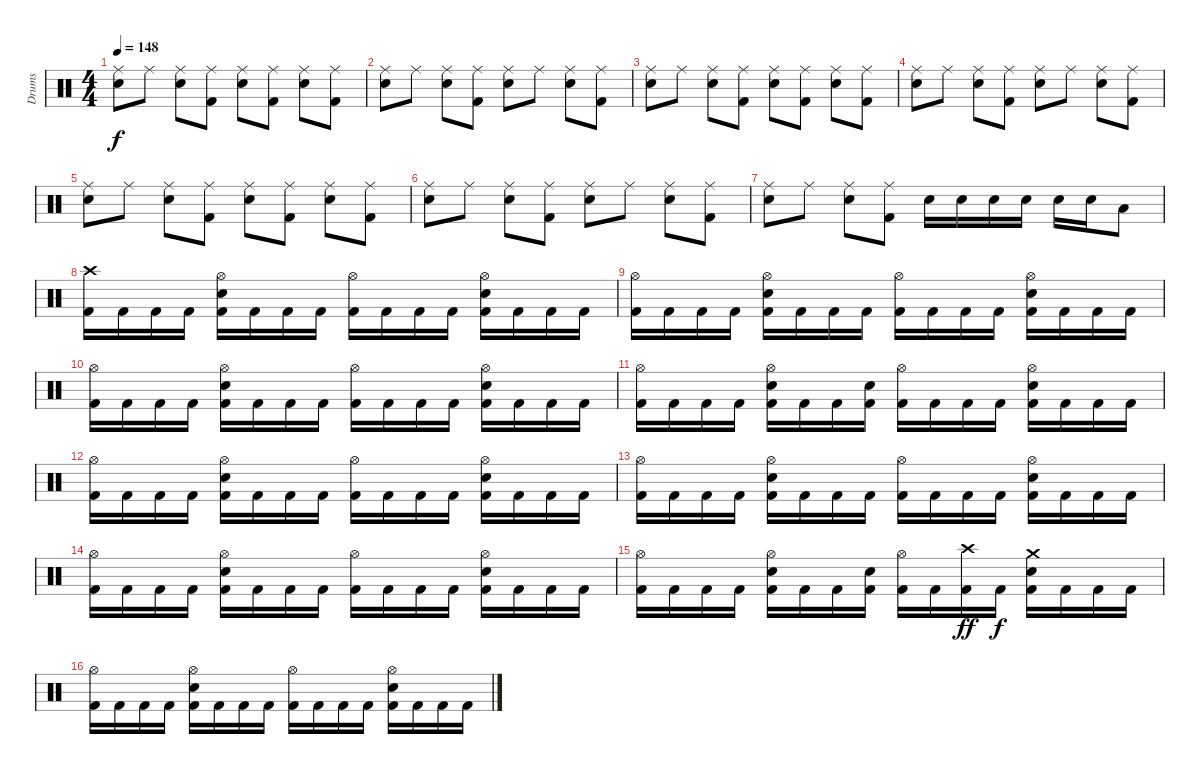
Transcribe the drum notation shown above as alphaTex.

\track ("Drums" "Drums") {instrument percussion}
\staff {score}
\articulation defaults
\ts (4 4)
\tempo 148
\clef neutral
\ks c
("Ride (middle)" "Snare (hit) 2").8{dy f} "Ride (middle)".8 ("Ride (middle)" "Snare (hit) 2").8 ("Ride (middle)" "Kick (hit) 2").8 ("Ride (middle)" "Snare (hit) 2").8 ("Ride (middle)" "Kick (hit) 2").8 ("Ride (middle)" "Snare (hit) 2").8 ("Ride (middle)" "Kick (hit) 2").8 |
("Ride (middle)" "Snare (hit) 2").8 "Ride (middle)".8 ("Ride (middle)" "Snare (hit) 2").8 ("Ride (middle)" "Kick (hit) 2").8 ("Ride (middle)" "Snare (hit) 2").8 "Ride (middle)".8 ("Ride (middle)" "Snare (hit) 2").8 ("Ride (middle)" "Kick (hit) 2").8 |
("Ride (middle)" "Snare (hit) 2").8 "Ride (middle)".8 ("Ride (middle)" "Snare (hit) 2").8 ("Ride (middle)" "Kick (hit) 2").8 ("Ride (middle)" "Snare (hit) 2").8 ("Ride (middle)" "Kick (hit) 2").8 ("Ride (middle)" "Snare (hit) 2").8 ("Ride (middle)" "Kick (hit) 2").8 |
("Ride (middle)" "Snare (hit) 2").8 "Ride (middle)".8 ("Ride (middle)" "Snare (hit) 2").8 ("Ride (middle)" "Kick (hit) 2").8 ("Ride (middle)" "Snare (hit) 2").8 "Ride (middle)".8 ("Ride (middle)" "Snare (hit) 2").8 ("Ride (middle)" "Kick (hit) 2").8 |
("Ride (middle)" "Snare (hit) 2").8 "Ride (middle)".8 ("Ride (middle)" "Snare (hit) 2").8 ("Ride (middle)" "Kick (hit) 2").8 ("Ride (middle)" "Snare (hit) 2").8 ("Ride (middle)" "Kick (hit) 2").8 ("Ride (middle)" "Snare (hit) 2").8 ("Ride (middle)" "Kick (hit) 2").8 |
("Ride (middle)" "Snare (hit) 2").8 "Ride (middle)".8 ("Ride (middle)" "Snare (hit) 2").8 ("Ride (middle)" "Kick (hit) 2").8 ("Ride (middle)" "Snare (hit) 2").8 "Ride (middle)".8 ("Ride (middle)" "Snare (hit) 2").8 ("Ride (middle)" "Kick (hit) 2").8 |
("Ride (middle)" "Snare (hit) 2").8 "Ride (middle)".8 ("Ride (middle)" "Snare (hit) 2").8 ("Ride (middle)" "Kick (hit) 2").8 "Snare (hit) 2".16 "Snare (hit) 2".16 "Snare (hit) 2".16 "Snare (hit) 2".16 "Snare (hit) 2".16 "Snare (hit) 2".16 "Low Tom (hit)".8 |
("Crash high (hit)" "Kick (hit) 2").16 "Kick (hit) 2".16 "Kick (hit) 2".16 "Kick (hit) 2".16 ("Hi-Hat (open)" "Snare (hit) 2" "Kick (hit) 2").16 "Kick (hit) 2".16 "Kick (hit) 2".16 "Kick (hit) 2".16 ("Hi-Hat (open)" "Kick (hit) 2").16 "Kick (hit) 2".16 "Kick (hit) 2".16 "Kick (hit) 2".16 ("Hi-Hat (open)" "Snare (hit) 2" "Kick (hit) 2").16 "Kick (hit) 2".16 "Kick (hit) 2".16 "Kick (hit) 2".16 |
("Hi-Hat (open)" "Kick (hit) 2").16 "Kick (hit) 2".16 "Kick (hit) 2".16 "Kick (hit) 2".16 ("Hi-Hat (open)" "Snare (hit) 2" "Kick (hit) 2").16 "Kick (hit) 2".16 "Kick (hit) 2".16 "Kick (hit) 2".16 ("Hi-Hat (open)" "Kick (hit) 2").16 "Kick (hit) 2".16 "Kick (hit) 2".16 "Kick (hit) 2".16 ("Hi-Hat (open)" "Snare (hit) 2" "Kick (hit) 2").16 "Kick (hit) 2".16 "Kick (hit) 2".16 "Kick (hit) 2".16 |
("Hi-Hat (open)" "Kick (hit) 2").16 "Kick (hit) 2".16 "Kick (hit) 2".16 "Kick (hit) 2".16 ("Hi-Hat (open)" "Snare (hit) 2" "Kick (hit) 2").16 "Kick (hit) 2".16 "Kick (hit) 2".16 "Kick (hit) 2".16 ("Hi-Hat (open)" "Kick (hit) 2").16 "Kick (hit) 2".16 "Kick (hit) 2".16 "Kick (hit) 2".16 ("Hi-Hat (open)" "Snare (hit) 2" "Kick (hit) 2").16 "Kick (hit) 2".16 "Kick (hit) 2".16 "Kick (hit) 2".16 |
("Hi-Hat (open)" "Kick (hit) 2").16 "Kick (hit) 2".16 "Kick (hit) 2".16 "Kick (hit) 2".16 ("Hi-Hat (open)" "Snare (hit) 2" "Kick (hit) 2").16 "Kick (hit) 2".16 "Kick (hit) 2".16 ("Snare (hit) 2" "Kick (hit) 2").16 ("Hi-Hat (open)" "Kick (hit) 2").16 "Kick (hit) 2".16 "Kick (hit) 2".16 "Kick (hit) 2".16 ("Hi-Hat (open)" "Snare (hit) 2" "Kick (hit) 2").16 "Kick (hit) 2".16 "Kick (hit) 2".16 "Kick (hit) 2".16 |
("Hi-Hat (open)" "Kick (hit) 2").16 "Kick (hit) 2".16 "Kick (hit) 2".16 "Kick (hit) 2".16 ("Hi-Hat (open)" "Snare (hit) 2" "Kick (hit) 2").16 "Kick (hit) 2".16 "Kick (hit) 2".16 "Kick (hit) 2".16 ("Hi-Hat (open)" "Kick (hit) 2").16 "Kick (hit) 2".16 "Kick (hit) 2".16 "Kick (hit) 2".16 ("Hi-Hat (open)" "Snare (hit) 2" "Kick (hit) 2").16 "Kick (hit) 2".16 "Kick (hit) 2".16 "Kick (hit) 2".16 |
("Hi-Hat (open)" "Kick (hit) 2").16 "Kick (hit) 2".16 "Kick (hit) 2".16 "Kick (hit) 2".16 ("Hi-Hat (open)" "Snare (hit) 2" "Kick (hit) 2").16 "Kick (hit) 2".16 "Kick (hit) 2".16 "Kick (hit) 2".16 ("Hi-Hat (open)" "Kick (hit) 2").16 "Kick (hit) 2".16 "Kick (hit) 2".16 "Kick (hit) 2".16 ("Hi-Hat (open)" "Snare (hit) 2" "Kick (hit) 2").16 "Kick (hit) 2".16 "Kick (hit) 2".16 "Kick (hit) 2".16 |
("Hi-Hat (open)" "Kick (hit) 2").16 "Kick (hit) 2".16 "Kick (hit) 2".16 "Kick (hit) 2".16 ("Hi-Hat (open)" "Snare (hit) 2" "Kick (hit) 2").16 "Kick (hit) 2".16 "Kick (hit) 2".16 "Kick (hit) 2".16 ("Hi-Hat (open)" "Kick (hit) 2").16 "Kick (hit) 2".16 "Kick (hit) 2".16 "Kick (hit) 2".16 ("Hi-Hat (open)" "Snare (hit) 2" "Kick (hit) 2").16 "Kick (hit) 2".16 "Kick (hit) 2".16 "Kick (hit) 2".16 |
("Hi-Hat (open)" "Kick (hit) 2").16 "Kick (hit) 2".16 "Kick (hit) 2".16 "Kick (hit) 2".16 ("Hi-Hat (open)" "Snare (hit) 2" "Kick (hit) 2").16 "Kick (hit) 2".16 "Kick (hit) 2".16 ("Snare (hit) 2" "Kick (hit) 2").16 ("Hi-Hat (open)" "Kick (hit) 2").16 "Kick (hit) 2".16 ("Crash high (hit)" "Kick (hit) 2").16{dy ff} "Kick (hit) 2".16{dy f} ("Crash medium (hit)" "Snare (hit) 2" "Kick (hit) 2").16 "Kick (hit) 2".16 "Kick (hit) 2".16 "Kick (hit) 2".16 |
("Hi-Hat (open)" "Kick (hit) 2").16 "Kick (hit) 2".16 "Kick (hit) 2".16 "Kick (hit) 2".16 ("Hi-Hat (open)" "Snare (hit) 2" "Kick (hit) 2").16 "Kick (hit) 2".16 "Kick (hit) 2".16 "Kick (hit) 2".16 ("Hi-Hat (open)" "Kick (hit) 2").16 "Kick (hit) 2".16 "Kick (hit) 2".16 "Kick (hit) 2".16 ("Hi-Hat (open)" "Snare (hit) 2" "Kick (hit) 2").16 "Kick (hit) 2".16 "Kick (hit) 2".16 "Kick (hit) 2".16
